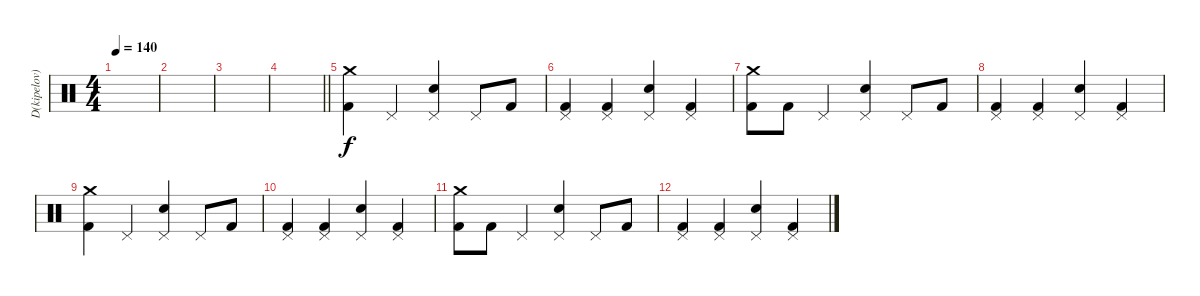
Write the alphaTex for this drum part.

\track ("D(kipelov)" "D(kipelov)") {instrument percussion}
\staff {score}
\articulation defaults
\ts (4 4)
\tempo 140
\clef neutral
\ks c
|
|
|
\barLineRight lightlight
|
\section ("" "")
("Crash medium (hit)" "Kick (hit) 2").4 "Pedal Hi-Hat (hit)".4 ("Electric Snare (hit)" "Pedal Hi-Hat (hit)").4 "Pedal Hi-Hat (hit)".8 "Kick (hit) 2".8 |
("Kick (hit) 2" "Pedal Hi-Hat (hit)").4 ("Kick (hit) 2" "Pedal Hi-Hat (hit)").4 ("Electric Snare (hit)" "Pedal Hi-Hat (hit)").4 ("Kick (hit) 2" "Pedal Hi-Hat (hit)").4 |
("Crash medium (hit)" "Kick (hit) 2").8 "Kick (hit) 2".8 "Pedal Hi-Hat (hit)".4 ("Electric Snare (hit)" "Pedal Hi-Hat (hit)").4 "Pedal Hi-Hat (hit)".8 "Kick (hit) 2".8 |
("Kick (hit) 2" "Pedal Hi-Hat (hit)").4 ("Kick (hit) 2" "Pedal Hi-Hat (hit)").4 ("Electric Snare (hit)" "Pedal Hi-Hat (hit)").4 ("Kick (hit) 2" "Pedal Hi-Hat (hit)").4 |
("Crash medium (hit)" "Kick (hit) 2").4 "Pedal Hi-Hat (hit)".4 ("Electric Snare (hit)" "Pedal Hi-Hat (hit)").4 "Pedal Hi-Hat (hit)".8 "Kick (hit) 2".8 |
("Kick (hit) 2" "Pedal Hi-Hat (hit)").4 ("Kick (hit) 2" "Pedal Hi-Hat (hit)").4 ("Electric Snare (hit)" "Pedal Hi-Hat (hit)").4 ("Kick (hit) 2" "Pedal Hi-Hat (hit)").4 |
("Crash medium (hit)" "Kick (hit) 2").8 "Kick (hit) 2".8 "Pedal Hi-Hat (hit)".4 ("Electric Snare (hit)" "Pedal Hi-Hat (hit)").4 "Pedal Hi-Hat (hit)".8 "Kick (hit) 2".8 |
("Kick (hit) 2" "Pedal Hi-Hat (hit)").4 ("Kick (hit) 2" "Pedal Hi-Hat (hit)").4 ("Electric Snare (hit)" "Pedal Hi-Hat (hit)").4 ("Kick (hit) 2" "Pedal Hi-Hat (hit)").4
